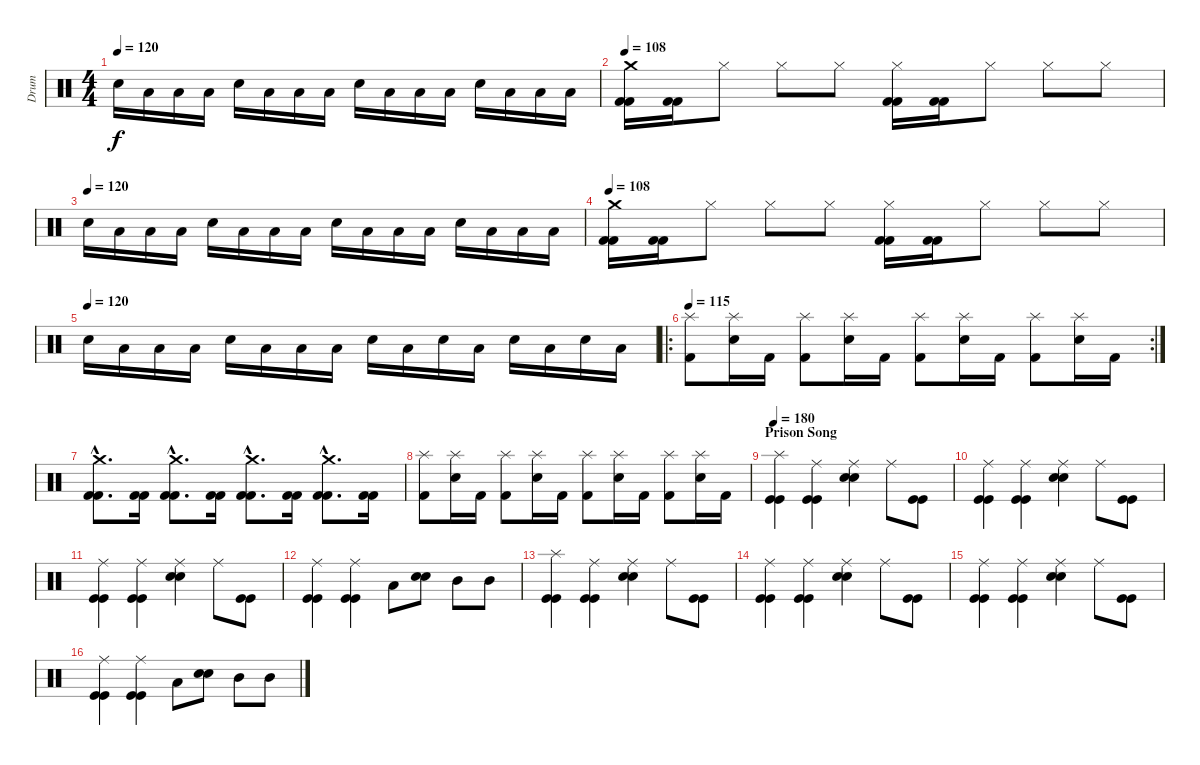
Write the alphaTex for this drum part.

\track ("Drum" "Drum") {instrument percussion}
\staff {score}
\articulation defaults
\ts (4 4)
\tempo 115
\tempo 120
\clef neutral
\ks c "Snare (hit) 2".16{dy f} "Low Tom (hit)".16 "Low Tom (hit)".16 "Low Tom (hit)".16 "Snare (hit) 2".16 "Low Tom (hit)".16 "Low Tom (hit)".16 "Low Tom (hit)".16 "Snare (hit) 2".16 "Low Tom (hit)".16 "Low Tom (hit)".16 "Low Tom (hit)".16 "Snare (hit) 2".16 "Low Tom (hit)".16 "Low Tom (hit)".16 "Low Tom (hit)".16
|
\tempo 108
("Crash medium (hit)" "Kick (hit) 2" "Kick (hit) 2").16 ("Kick (hit) 2" "Kick (hit) 2").16 "Hi-Hat (closed)".8 "Hi-Hat (closed)".8 "Hi-Hat (closed)".8 ("Hi-Hat (closed)" "Kick (hit) 2" "Kick (hit) 2").16 ("Kick (hit) 2" "Kick (hit) 2").16 "Hi-Hat (closed)".8 "Hi-Hat (closed)".8 "Hi-Hat (closed)".8 |
\tempo 115
\tempo (120)
"Snare (hit) 2".16 "Low Tom (hit)".16 "Low Tom (hit)".16 "Low Tom (hit)".16 "Snare (hit) 2".16 "Low Tom (hit)".16 "Low Tom (hit)".16 "Low Tom (hit)".16 "Snare (hit) 2".16 "Low Tom (hit)".16 "Low Tom (hit)".16 "Low Tom (hit)".16 "Snare (hit) 2".16 "Low Tom (hit)".16 "Low Tom (hit)".16 "Low Tom (hit)".16 |
\tempo 108
("Crash medium (hit)" "Kick (hit) 2" "Kick (hit) 2").16 ("Kick (hit) 2" "Kick (hit) 2").16 "Hi-Hat (closed)".8 "Hi-Hat (closed)".8 "Hi-Hat (closed)".8 ("Hi-Hat (closed)" "Kick (hit) 2" "Kick (hit) 2").16 ("Kick (hit) 2" "Kick (hit) 2").16 "Hi-Hat (closed)".8 "Hi-Hat (closed)".8 "Hi-Hat (closed)".8 |
\tempo (120)
"Snare (hit) 2".16 "Low Tom (hit)".16 "Low Tom (hit)".16 "Low Tom (hit)".16 "Snare (hit) 2".16 "Low Tom (hit)".16 "Low Tom (hit)".16 "Low Tom (hit)".16 "Snare (hit) 2".16 "Low Tom (hit)".16 "Snare (hit) 2".16 "Low Tom (hit)".16 "Snare (hit) 2".16 "Low Tom (hit)".16 "Snare (hit) 2".16 "Low Tom (hit)".16 |
\ro
\rc 2
\tempo 115
("Splash (hit)" "Kick (hit) 2").8 ("Splash (hit)" "Snare (hit) 2").16 "Kick (hit) 2".16 ("Splash (hit)" "Kick (hit) 2").8 ("Splash (hit)" "Snare (hit) 2").16 "Kick (hit) 2".16 ("Splash (hit)" "Kick (hit) 2").8 ("Splash (hit)" "Snare (hit) 2").16 "Kick (hit) 2".16 ("Splash (hit)" "Kick (hit) 2").8 ("Splash (hit)" "Snare (hit) 2").16 "Kick (hit) 2".16 |
("Crash medium (hit)"{hac} "Kick (hit) 2"{hac} "Kick (hit) 2"{hac}).8{d} ("Kick (hit) 2" "Kick (hit) 2").16 ("Crash medium (hit)"{hac} "Kick (hit) 2"{hac} "Kick (hit) 2"{hac}).8{d} ("Kick (hit) 2" "Kick (hit) 2").16 ("Crash medium (hit)"{hac} "Kick (hit) 2"{hac} "Kick (hit) 2"{hac}).8{d} ("Kick (hit) 2" "Kick (hit) 2").16 ("Crash medium (hit)"{hac} "Kick (hit) 2"{hac} "Kick (hit) 2"{hac}).8{d} ("Kick (hit) 2" "Kick (hit) 2").16 |
("Splash (hit)" "Kick (hit) 2").8 ("Splash (hit)" "Snare (hit) 2").16 "Kick (hit) 2".16 ("Splash (hit)" "Kick (hit) 2").8 ("Splash (hit)" "Snare (hit) 2").16 "Kick (hit) 2".16 ("Splash (hit)" "Kick (hit) 2").8 ("Splash (hit)" "Snare (hit) 2").16 "Kick (hit) 2".16 ("Splash (hit)" "Kick (hit) 2").8 ("Splash (hit)" "Snare (hit) 2").16 "Kick (hit) 2".16 |
\section ("" "Prison Song")
\tempo 180
("Splash (hit)" "Kick (hit)" "Kick (hit)").4 ("Ride (middle)" "Kick (hit)" "Kick (hit)").4 ("Ride (middle)" "Snare (hit) 2" "Snare (hit) 2").4 "Ride (middle)".8 ("Kick (hit)" "Kick (hit)").8 |
("Ride (middle)" "Kick (hit)" "Kick (hit)").4 ("Ride (middle)" "Kick (hit)" "Kick (hit)").4 ("Ride (middle)" "Snare (hit) 2" "Snare (hit) 2").4 "Ride (middle)".8 ("Kick (hit)" "Kick (hit)").8 |
("Ride (middle)" "Kick (hit)" "Kick (hit)").4 ("Ride (middle)" "Kick (hit)" "Kick (hit)").4 ("Ride (middle)" "Snare (hit) 2" "Snare (hit) 2").4 "Ride (middle)".8 ("Kick (hit)" "Kick (hit)").8 |
("Ride (middle)" "Kick (hit)" "Kick (hit)").4 ("Ride (middle)" "Kick (hit)" "Kick (hit)").4 "Low Tom (hit)".8 ("Snare (hit) 2" "Snare (hit) 2").8 "Mid Tom (hit)".8 "Mid Tom (hit)".8 |
("Splash (hit)" "Kick (hit)" "Kick (hit)").4 ("Ride (middle)" "Kick (hit)" "Kick (hit)").4 ("Ride (middle)" "Snare (hit) 2" "Snare (hit) 2").4 "Ride (middle)".8 ("Kick (hit)" "Kick (hit)").8 |
("Ride (middle)" "Kick (hit)" "Kick (hit)").4 ("Ride (middle)" "Kick (hit)" "Kick (hit)").4 ("Ride (middle)" "Snare (hit) 2" "Snare (hit) 2").4 "Ride (middle)".8 ("Kick (hit)" "Kick (hit)").8 |
("Ride (middle)" "Kick (hit)" "Kick (hit)").4 ("Ride (middle)" "Kick (hit)" "Kick (hit)").4 ("Ride (middle)" "Snare (hit) 2" "Snare (hit) 2").4 "Ride (middle)".8 ("Kick (hit)" "Kick (hit)").8 |
("Ride (middle)" "Kick (hit)" "Kick (hit)").4 ("Ride (middle)" "Kick (hit)" "Kick (hit)").4 "Low Tom (hit)".8 ("Snare (hit) 2" "Snare (hit) 2").8 "Mid Tom (hit)".8 "Mid Tom (hit)".8
